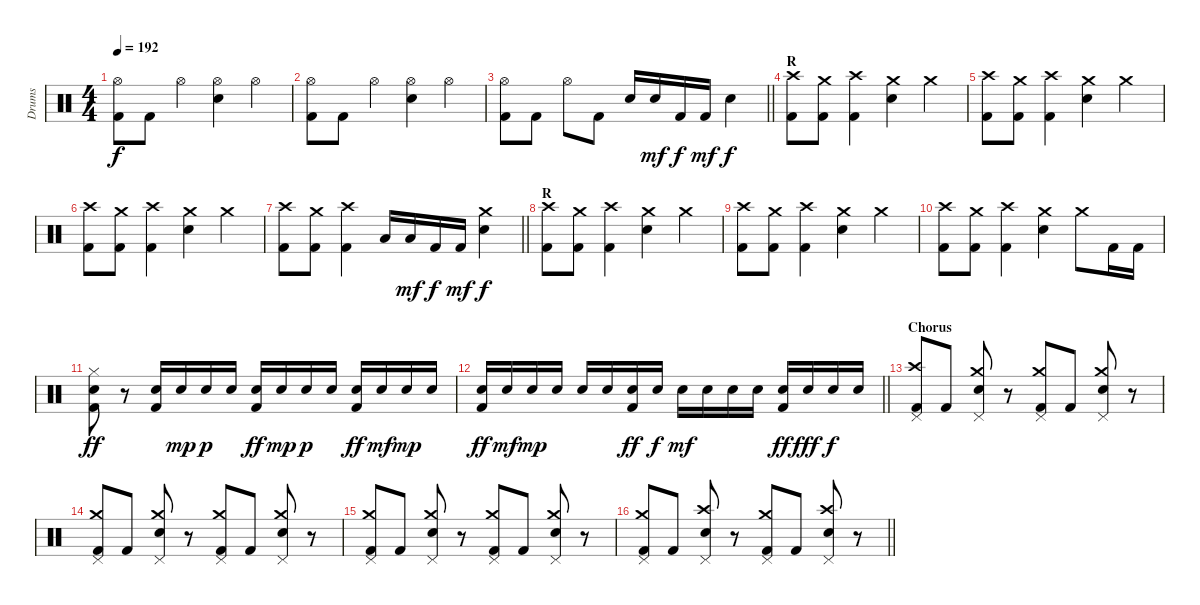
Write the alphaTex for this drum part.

\track ("Drums" "Drums") {instrument percussion}
\staff {score}
\articulation defaults
\ts (4 4)
\tempo 192
\clef neutral
\ks c
("Hi-Hat (open)" "Kick (hit) 2").8{dy f} "Kick (hit) 2".8 "Hi-Hat (open)".4 ("Hi-Hat (open)" "Snare (hit) 2").4 "Hi-Hat (open)".4 |
("Hi-Hat (open)" "Kick (hit) 2").8 "Kick (hit) 2".8 "Hi-Hat (open)".4 ("Hi-Hat (open)" "Snare (hit) 2").4 "Hi-Hat (open)".4 |
\barLineRight lightlight
("Hi-Hat (open)" "Kick (hit) 2").8 "Kick (hit) 2".8 "Hi-Hat (open)".8 "Kick (hit) 2".8 "Snare (hit) 2".16 "Snare (hit) 2".16{dy mf} "Kick (hit) 2".16{dy f} "Kick (hit) 2".16{dy mf} "Snare (hit) 2".4{dy f} |
\section ("" "R")
("Crash high (hit)" "Kick (hit) 2").8 ("Crash medium (hit)" "Kick (hit) 2").8 ("Crash high (hit)" "Kick (hit) 2").4 ("Crash medium (hit)" "Snare (hit) 2").4 "Crash medium (hit)".4 |
("Crash high (hit)" "Kick (hit) 2").8 ("Crash medium (hit)" "Kick (hit) 2").8 ("Crash high (hit)" "Kick (hit) 2").4 ("Crash medium (hit)" "Snare (hit) 2").4 "Crash medium (hit)".4 |
("Crash high (hit)" "Kick (hit) 2").8 ("Crash medium (hit)" "Kick (hit) 2").8 ("Crash high (hit)" "Kick (hit) 2").4 ("Crash medium (hit)" "Snare (hit) 2").4 "Crash medium (hit)".4 |
\barLineRight lightlight
("Crash high (hit)" "Kick (hit) 2").8 ("Crash medium (hit)" "Kick (hit) 2").8 ("Crash high (hit)" "Kick (hit) 2").4 "Low Tom (hit)".16 "Low Tom (hit)".16{dy mf} "Kick (hit) 2".16{dy f} "Kick (hit) 2".16{dy mf} ("Crash medium (hit)" "Snare (hit) 2").4{dy f} |
\section ("" "R")
("Crash high (hit)" "Kick (hit) 2").8 ("Crash medium (hit)" "Kick (hit) 2").8 ("Crash high (hit)" "Kick (hit) 2").4 ("Crash medium (hit)" "Snare (hit) 2").4 "Crash medium (hit)".4 |
("Crash high (hit)" "Kick (hit) 2").8 ("Crash medium (hit)" "Kick (hit) 2").8 ("Crash high (hit)" "Kick (hit) 2").4 ("Crash medium (hit)" "Snare (hit) 2").4 "Crash medium (hit)".4 |
("Crash high (hit)" "Kick (hit) 2").8 ("Crash medium (hit)" "Kick (hit) 2").8 ("Crash high (hit)" "Kick (hit) 2").4 ("Crash medium (hit)" "Snare (hit) 2").4 "Crash medium (hit)".8 "Kick (hit) 2".16 "Kick (hit) 2".16 |
("Hi-Hat (closed)" "Snare (hit) 2" "Kick (hit) 2").8{dy ff} r.8 ("Snare (hit) 2" "Kick (hit) 2").16 "Snare (hit) 2".16{dy mp} "Snare (hit) 2".16{dy p} "Snare (hit) 2".16 ("Snare (hit) 2" "Kick (hit) 2").16{dy ff} "Snare (hit) 2".16{dy mp} "Snare (hit) 2".16{dy p} "Snare (hit) 2".16 ("Snare (hit) 2" "Kick (hit) 2").16{dy ff} "Snare (hit) 2".16{dy mf} "Snare (hit) 2".16{dy mp} "Snare (hit) 2".16 |
\barLineRight lightlight
("Snare (hit) 2" "Kick (hit) 2").16{dy ff} "Snare (hit) 2".16{dy mf} "Snare (hit) 2".16{dy mp} "Snare (hit) 2".16 "Snare (hit) 2".16 "Snare (hit) 2".16 ("Snare (hit) 2" "Kick (hit) 2").16{dy ff} "Snare (hit) 2".16{dy f} "Snare (hit) 2".16{dy mf} "Snare (hit) 2".16 "Snare (hit) 2".16 "Snare (hit) 2".16 ("Snare (hit) 2" "Kick (hit) 2").16{dy ff} "Snare (hit) 2".16{dy fff} "Snare (hit) 2".16{dy f} "Snare (hit) 2".16 |
\section ("" "Chorus")
("Crash high (hit)" "Pedal Hi-Hat (hit)" "Kick (hit) 2").8 "Kick (hit) 2".8 ("Crash medium (hit)" "Pedal Hi-Hat (hit)" "Snare (hit) 2").8 r.8 ("Crash medium (hit)" "Pedal Hi-Hat (hit)" "Kick (hit) 2").8 "Kick (hit) 2".8 ("Crash medium (hit)" "Pedal Hi-Hat (hit)" "Snare (hit) 2").8 r.8 |
("Crash medium (hit)" "Pedal Hi-Hat (hit)" "Kick (hit) 2").8 "Kick (hit) 2".8 ("Crash medium (hit)" "Pedal Hi-Hat (hit)" "Snare (hit) 2").8 r.8 ("Crash medium (hit)" "Pedal Hi-Hat (hit)" "Kick (hit) 2").8 "Kick (hit) 2".8 ("Crash medium (hit)" "Pedal Hi-Hat (hit)" "Snare (hit) 2").8 r.8 |
("Crash medium (hit)" "Pedal Hi-Hat (hit)" "Kick (hit) 2").8 "Kick (hit) 2".8 ("Crash medium (hit)" "Pedal Hi-Hat (hit)" "Snare (hit) 2").8 r.8 ("Crash medium (hit)" "Pedal Hi-Hat (hit)" "Kick (hit) 2").8 "Kick (hit) 2".8 ("Crash medium (hit)" "Pedal Hi-Hat (hit)" "Snare (hit) 2").8 r.8 |
\barLineRight lightlight
("Crash medium (hit)" "Pedal Hi-Hat (hit)" "Kick (hit) 2").8 "Kick (hit) 2".8 ("Crash high (hit)" "Pedal Hi-Hat (hit)" "Snare (hit) 2").8 r.8 ("Crash medium (hit)" "Pedal Hi-Hat (hit)" "Kick (hit) 2").8 "Kick (hit) 2".8 ("Crash high (hit)" "Pedal Hi-Hat (hit)" "Snare (hit) 2").8 r.8
